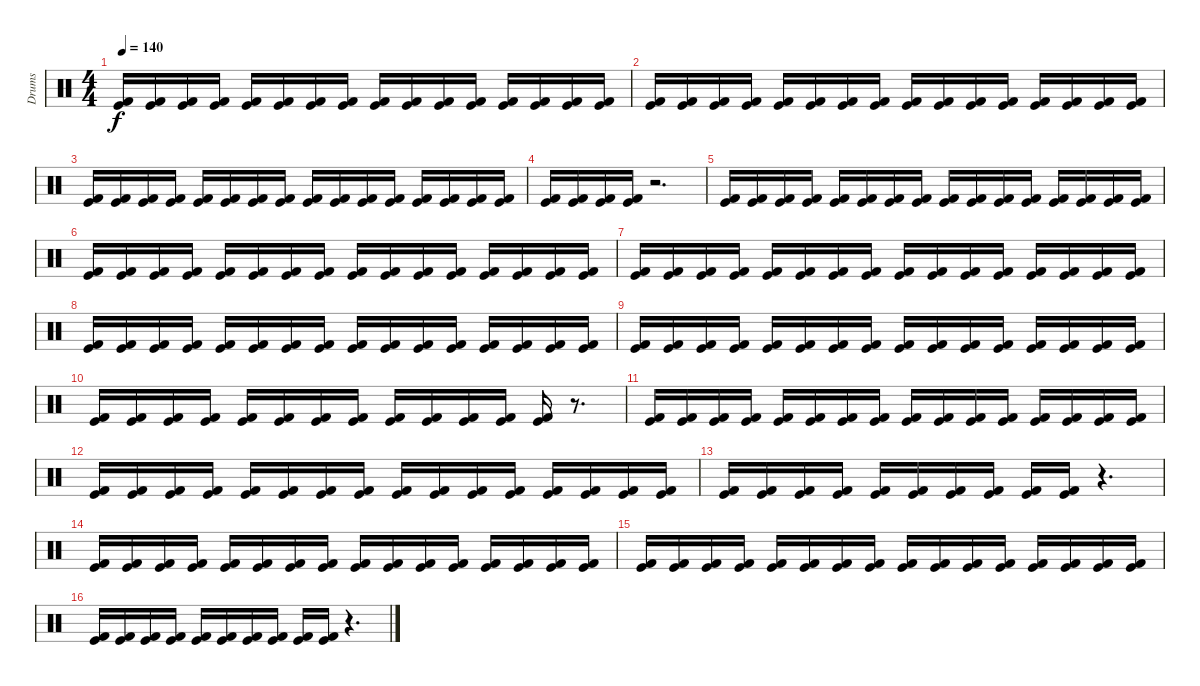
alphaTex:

\track ("Drums" "Drums") {instrument percussion}
\staff {score}
\articulation defaults
\ts (4 4)
\tempo 140
\clef neutral
\ks c
("Kick (hit) 2" "Kick (hit)").16{dy f} ("Kick (hit) 2" "Kick (hit)").16 ("Kick (hit) 2" "Kick (hit)").16 ("Kick (hit) 2" "Kick (hit)").16 ("Kick (hit) 2" "Kick (hit)").16 ("Kick (hit) 2" "Kick (hit)").16 ("Kick (hit) 2" "Kick (hit)").16 ("Kick (hit) 2" "Kick (hit)").16 ("Kick (hit) 2" "Kick (hit)").16 ("Kick (hit) 2" "Kick (hit)").16 ("Kick (hit) 2" "Kick (hit)").16 ("Kick (hit) 2" "Kick (hit)").16 ("Kick (hit) 2" "Kick (hit)").16 ("Kick (hit) 2" "Kick (hit)").16 ("Kick (hit) 2" "Kick (hit)").16 ("Kick (hit) 2" "Kick (hit)").16 |
("Kick (hit) 2" "Kick (hit)").16 ("Kick (hit) 2" "Kick (hit)").16 ("Kick (hit) 2" "Kick (hit)").16 ("Kick (hit) 2" "Kick (hit)").16 ("Kick (hit) 2" "Kick (hit)").16 ("Kick (hit) 2" "Kick (hit)").16 ("Kick (hit) 2" "Kick (hit)").16 ("Kick (hit) 2" "Kick (hit)").16 ("Kick (hit) 2" "Kick (hit)").16 ("Kick (hit) 2" "Kick (hit)").16 ("Kick (hit) 2" "Kick (hit)").16 ("Kick (hit) 2" "Kick (hit)").16 ("Kick (hit) 2" "Kick (hit)").16 ("Kick (hit) 2" "Kick (hit)").16 ("Kick (hit) 2" "Kick (hit)").16 ("Kick (hit) 2" "Kick (hit)").16 |
("Kick (hit) 2" "Kick (hit)").16 ("Kick (hit) 2" "Kick (hit)").16 ("Kick (hit) 2" "Kick (hit)").16 ("Kick (hit) 2" "Kick (hit)").16 ("Kick (hit) 2" "Kick (hit)").16 ("Kick (hit) 2" "Kick (hit)").16 ("Kick (hit) 2" "Kick (hit)").16 ("Kick (hit) 2" "Kick (hit)").16 ("Kick (hit) 2" "Kick (hit)").16 ("Kick (hit) 2" "Kick (hit)").16 ("Kick (hit) 2" "Kick (hit)").16 ("Kick (hit) 2" "Kick (hit)").16 ("Kick (hit) 2" "Kick (hit)").16 ("Kick (hit) 2" "Kick (hit)").16 ("Kick (hit) 2" "Kick (hit)").16 ("Kick (hit) 2" "Kick (hit)").16 |
("Kick (hit) 2" "Kick (hit)").16 ("Kick (hit) 2" "Kick (hit)").16 ("Kick (hit) 2" "Kick (hit)").16 ("Kick (hit) 2" "Kick (hit)").16 r.2{d} |
("Kick (hit) 2" "Kick (hit)").16 ("Kick (hit) 2" "Kick (hit)").16 ("Kick (hit) 2" "Kick (hit)").16 ("Kick (hit) 2" "Kick (hit)").16 ("Kick (hit) 2" "Kick (hit)").16 ("Kick (hit) 2" "Kick (hit)").16 ("Kick (hit) 2" "Kick (hit)").16 ("Kick (hit) 2" "Kick (hit)").16 ("Kick (hit) 2" "Kick (hit)").16 ("Kick (hit) 2" "Kick (hit)").16 ("Kick (hit) 2" "Kick (hit)").16 ("Kick (hit) 2" "Kick (hit)").16 ("Kick (hit) 2" "Kick (hit)").16 ("Kick (hit) 2" "Kick (hit)").16 ("Kick (hit) 2" "Kick (hit)").16 ("Kick (hit) 2" "Kick (hit)").16 |
("Kick (hit) 2" "Kick (hit)").16 ("Kick (hit) 2" "Kick (hit)").16 ("Kick (hit) 2" "Kick (hit)").16 ("Kick (hit) 2" "Kick (hit)").16 ("Kick (hit) 2" "Kick (hit)").16 ("Kick (hit) 2" "Kick (hit)").16 ("Kick (hit) 2" "Kick (hit)").16 ("Kick (hit) 2" "Kick (hit)").16 ("Kick (hit) 2" "Kick (hit)").16 ("Kick (hit) 2" "Kick (hit)").16 ("Kick (hit) 2" "Kick (hit)").16 ("Kick (hit) 2" "Kick (hit)").16 ("Kick (hit) 2" "Kick (hit)").16 ("Kick (hit) 2" "Kick (hit)").16 ("Kick (hit) 2" "Kick (hit)").16 ("Kick (hit) 2" "Kick (hit)").16 |
("Kick (hit) 2" "Kick (hit)").16 ("Kick (hit) 2" "Kick (hit)").16 ("Kick (hit) 2" "Kick (hit)").16 ("Kick (hit) 2" "Kick (hit)").16 ("Kick (hit) 2" "Kick (hit)").16 ("Kick (hit) 2" "Kick (hit)").16 ("Kick (hit) 2" "Kick (hit)").16 ("Kick (hit) 2" "Kick (hit)").16 ("Kick (hit) 2" "Kick (hit)").16 ("Kick (hit) 2" "Kick (hit)").16 ("Kick (hit) 2" "Kick (hit)").16 ("Kick (hit) 2" "Kick (hit)").16 ("Kick (hit) 2" "Kick (hit)").16 ("Kick (hit) 2" "Kick (hit)").16 ("Kick (hit) 2" "Kick (hit)").16 ("Kick (hit) 2" "Kick (hit)").16 |
("Kick (hit) 2" "Kick (hit)").16 ("Kick (hit) 2" "Kick (hit)").16 ("Kick (hit) 2" "Kick (hit)").16 ("Kick (hit) 2" "Kick (hit)").16 ("Kick (hit) 2" "Kick (hit)").16 ("Kick (hit) 2" "Kick (hit)").16 ("Kick (hit) 2" "Kick (hit)").16 ("Kick (hit) 2" "Kick (hit)").16 ("Kick (hit) 2" "Kick (hit)").16 ("Kick (hit) 2" "Kick (hit)").16 ("Kick (hit) 2" "Kick (hit)").16 ("Kick (hit) 2" "Kick (hit)").16 ("Kick (hit) 2" "Kick (hit)").16 ("Kick (hit) 2" "Kick (hit)").16 ("Kick (hit) 2" "Kick (hit)").16 ("Kick (hit) 2" "Kick (hit)").16 |
("Kick (hit) 2" "Kick (hit)").16 ("Kick (hit) 2" "Kick (hit)").16 ("Kick (hit) 2" "Kick (hit)").16 ("Kick (hit) 2" "Kick (hit)").16 ("Kick (hit) 2" "Kick (hit)").16 ("Kick (hit) 2" "Kick (hit)").16 ("Kick (hit) 2" "Kick (hit)").16 ("Kick (hit) 2" "Kick (hit)").16 ("Kick (hit) 2" "Kick (hit)").16 ("Kick (hit) 2" "Kick (hit)").16 ("Kick (hit) 2" "Kick (hit)").16 ("Kick (hit) 2" "Kick (hit)").16 ("Kick (hit) 2" "Kick (hit)").16 ("Kick (hit) 2" "Kick (hit)").16 ("Kick (hit) 2" "Kick (hit)").16 ("Kick (hit) 2" "Kick (hit)").16 |
("Kick (hit) 2" "Kick (hit)").16 ("Kick (hit) 2" "Kick (hit)").16 ("Kick (hit) 2" "Kick (hit)").16 ("Kick (hit) 2" "Kick (hit)").16 ("Kick (hit) 2" "Kick (hit)").16 ("Kick (hit) 2" "Kick (hit)").16 ("Kick (hit) 2" "Kick (hit)").16 ("Kick (hit) 2" "Kick (hit)").16 ("Kick (hit) 2" "Kick (hit)").16 ("Kick (hit) 2" "Kick (hit)").16 ("Kick (hit) 2" "Kick (hit)").16 ("Kick (hit) 2" "Kick (hit)").16 ("Kick (hit) 2" "Kick (hit)").16 r.8{d} |
("Kick (hit) 2" "Kick (hit)").16 ("Kick (hit) 2" "Kick (hit)").16 ("Kick (hit) 2" "Kick (hit)").16 ("Kick (hit) 2" "Kick (hit)").16 ("Kick (hit) 2" "Kick (hit)").16 ("Kick (hit) 2" "Kick (hit)").16 ("Kick (hit) 2" "Kick (hit)").16 ("Kick (hit) 2" "Kick (hit)").16 ("Kick (hit) 2" "Kick (hit)").16 ("Kick (hit) 2" "Kick (hit)").16 ("Kick (hit) 2" "Kick (hit)").16 ("Kick (hit) 2" "Kick (hit)").16 ("Kick (hit) 2" "Kick (hit)").16 ("Kick (hit) 2" "Kick (hit)").16 ("Kick (hit) 2" "Kick (hit)").16 ("Kick (hit) 2" "Kick (hit)").16 |
("Kick (hit) 2" "Kick (hit)").16 ("Kick (hit) 2" "Kick (hit)").16 ("Kick (hit) 2" "Kick (hit)").16 ("Kick (hit) 2" "Kick (hit)").16 ("Kick (hit) 2" "Kick (hit)").16 ("Kick (hit) 2" "Kick (hit)").16 ("Kick (hit) 2" "Kick (hit)").16 ("Kick (hit) 2" "Kick (hit)").16 ("Kick (hit) 2" "Kick (hit)").16 ("Kick (hit) 2" "Kick (hit)").16 ("Kick (hit) 2" "Kick (hit)").16 ("Kick (hit) 2" "Kick (hit)").16 ("Kick (hit) 2" "Kick (hit)").16 ("Kick (hit) 2" "Kick (hit)").16 ("Kick (hit) 2" "Kick (hit)").16 ("Kick (hit) 2" "Kick (hit)").16 |
("Kick (hit) 2" "Kick (hit)").16 ("Kick (hit) 2" "Kick (hit)").16 ("Kick (hit) 2" "Kick (hit)").16 ("Kick (hit) 2" "Kick (hit)").16 ("Kick (hit) 2" "Kick (hit)").16 ("Kick (hit) 2" "Kick (hit)").16 ("Kick (hit) 2" "Kick (hit)").16 ("Kick (hit) 2" "Kick (hit)").16 ("Kick (hit) 2" "Kick (hit)").16 ("Kick (hit) 2" "Kick (hit)").16 r.4{d} |
("Kick (hit) 2" "Kick (hit)").16 ("Kick (hit) 2" "Kick (hit)").16 ("Kick (hit) 2" "Kick (hit)").16 ("Kick (hit) 2" "Kick (hit)").16 ("Kick (hit) 2" "Kick (hit)").16 ("Kick (hit) 2" "Kick (hit)").16 ("Kick (hit) 2" "Kick (hit)").16 ("Kick (hit) 2" "Kick (hit)").16 ("Kick (hit) 2" "Kick (hit)").16 ("Kick (hit) 2" "Kick (hit)").16 ("Kick (hit) 2" "Kick (hit)").16 ("Kick (hit) 2" "Kick (hit)").16 ("Kick (hit) 2" "Kick (hit)").16 ("Kick (hit) 2" "Kick (hit)").16 ("Kick (hit) 2" "Kick (hit)").16 ("Kick (hit) 2" "Kick (hit)").16 |
("Kick (hit) 2" "Kick (hit)").16 ("Kick (hit) 2" "Kick (hit)").16 ("Kick (hit) 2" "Kick (hit)").16 ("Kick (hit) 2" "Kick (hit)").16 ("Kick (hit) 2" "Kick (hit)").16 ("Kick (hit) 2" "Kick (hit)").16 ("Kick (hit) 2" "Kick (hit)").16 ("Kick (hit) 2" "Kick (hit)").16 ("Kick (hit) 2" "Kick (hit)").16 ("Kick (hit) 2" "Kick (hit)").16 ("Kick (hit) 2" "Kick (hit)").16 ("Kick (hit) 2" "Kick (hit)").16 ("Kick (hit) 2" "Kick (hit)").16 ("Kick (hit) 2" "Kick (hit)").16 ("Kick (hit) 2" "Kick (hit)").16 ("Kick (hit) 2" "Kick (hit)").16 |
("Kick (hit) 2" "Kick (hit)").16 ("Kick (hit) 2" "Kick (hit)").16 ("Kick (hit) 2" "Kick (hit)").16 ("Kick (hit) 2" "Kick (hit)").16 ("Kick (hit) 2" "Kick (hit)").16 ("Kick (hit) 2" "Kick (hit)").16 ("Kick (hit) 2" "Kick (hit)").16 ("Kick (hit) 2" "Kick (hit)").16 ("Kick (hit) 2" "Kick (hit)").16 ("Kick (hit) 2" "Kick (hit)").16 r.4{d}
